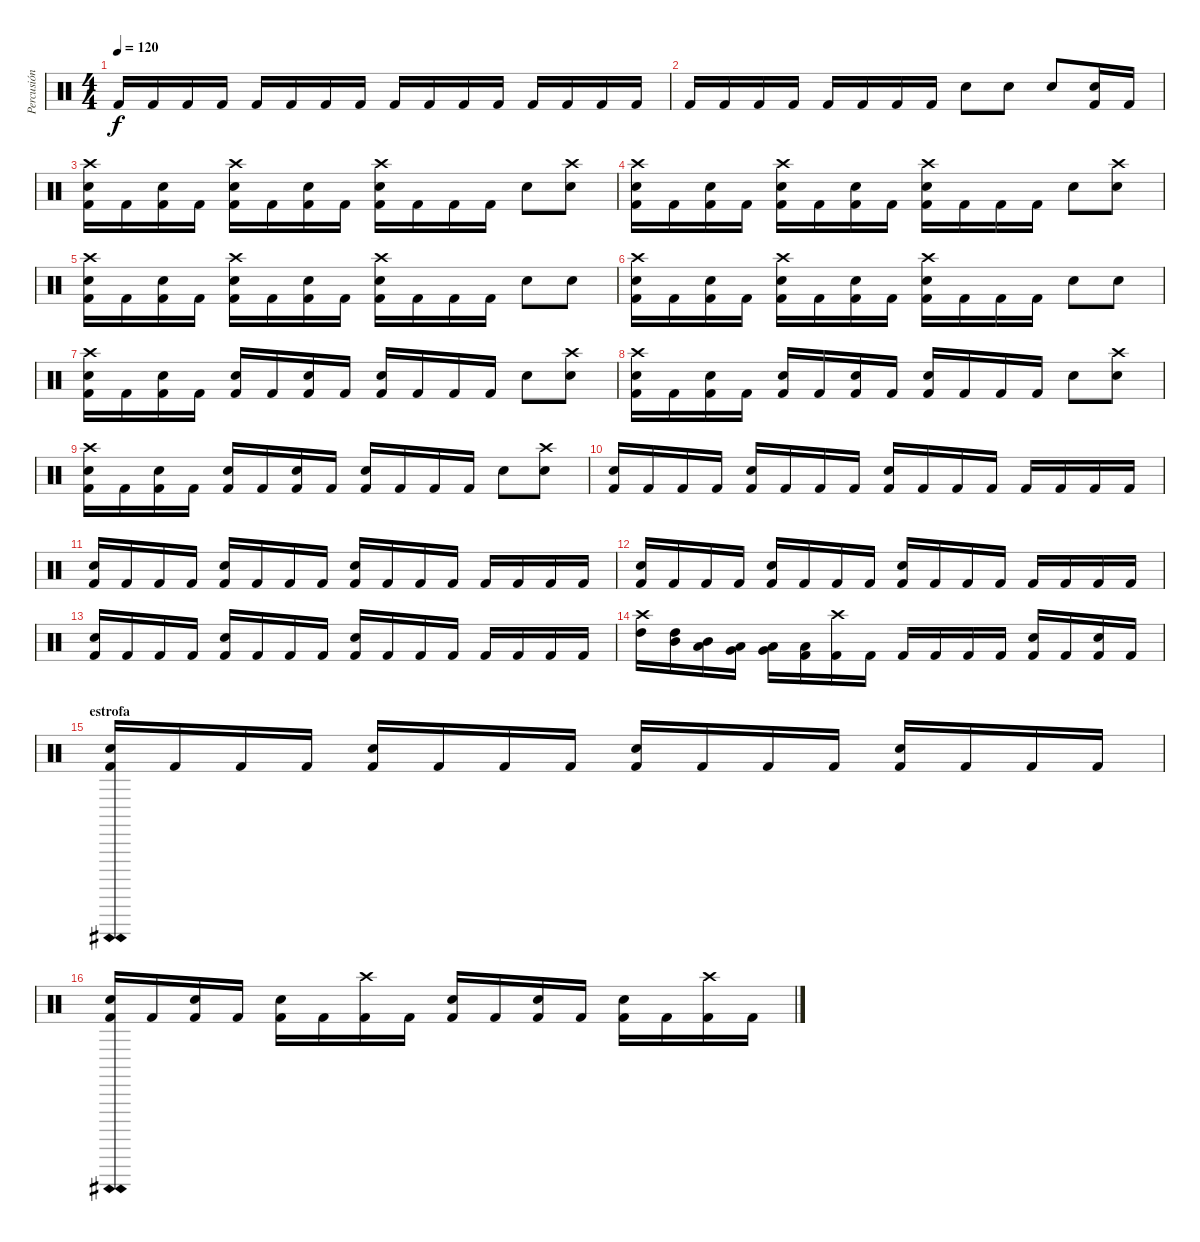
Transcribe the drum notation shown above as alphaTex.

\track ("Percusión" "Percusión") {instrument percussion}
\staff {score}
\articulation defaults
\ts (4 4)
\tempo 120
\clef neutral
\ks c "Kick (hit) 2".16{dy f} "Kick (hit) 2".16 "Kick (hit) 2".16 "Kick (hit) 2".16 "Kick (hit) 2".16 "Kick (hit) 2".16 "Kick (hit) 2".16 "Kick (hit) 2".16 "Kick (hit) 2".16 "Kick (hit) 2".16 "Kick (hit) 2".16 "Kick (hit) 2".16 "Kick (hit) 2".16 "Kick (hit) 2".16 "Kick (hit) 2".16 "Kick (hit) 2".16
|
"Kick (hit) 2".16 "Kick (hit) 2".16 "Kick (hit) 2".16 "Kick (hit) 2".16 "Kick (hit) 2".16 "Kick (hit) 2".16 "Kick (hit) 2".16 "Kick (hit) 2".16 "Electric Snare (hit)".8 "Electric Snare (hit)".8 "Electric Snare (hit)".8 ("Kick (hit) 2" "Electric Snare (hit)").16 "Kick (hit) 2".16 |
("Crash high (hit)" "Kick (hit) 2" "Electric Snare (hit)").16 "Kick (hit) 2".16 ("Kick (hit) 2" "Electric Snare (hit)").16 "Kick (hit) 2".16 ("Crash high (hit)" "Kick (hit) 2" "Electric Snare (hit)").16 "Kick (hit) 2".16 ("Kick (hit) 2" "Electric Snare (hit)").16 "Kick (hit) 2".16 ("Crash high (hit)" "Kick (hit) 2" "Electric Snare (hit)").16 "Kick (hit) 2".16 "Kick (hit) 2".16 "Kick (hit) 2".16 "Electric Snare (hit)".8 ("Crash high (hit)" "Electric Snare (hit)").8 |
("Crash high (hit)" "Kick (hit) 2" "Electric Snare (hit)").16 "Kick (hit) 2".16 ("Kick (hit) 2" "Electric Snare (hit)").16 "Kick (hit) 2".16 ("Crash high (hit)" "Kick (hit) 2" "Electric Snare (hit)").16 "Kick (hit) 2".16 ("Kick (hit) 2" "Electric Snare (hit)").16 "Kick (hit) 2".16 ("Crash high (hit)" "Kick (hit) 2" "Electric Snare (hit)").16 "Kick (hit) 2".16 "Kick (hit) 2".16 "Kick (hit) 2".16 "Electric Snare (hit)".8 ("Crash high (hit)" "Electric Snare (hit)").8 |
("Crash high (hit)" "Kick (hit) 2" "Electric Snare (hit)").16 "Kick (hit) 2".16 ("Kick (hit) 2" "Electric Snare (hit)").16 "Kick (hit) 2".16 ("Crash high (hit)" "Kick (hit) 2" "Electric Snare (hit)").16 "Kick (hit) 2".16 ("Kick (hit) 2" "Electric Snare (hit)").16 "Kick (hit) 2".16 ("Crash high (hit)" "Kick (hit) 2" "Electric Snare (hit)").16 "Kick (hit) 2".16 "Kick (hit) 2".16 "Kick (hit) 2".16 "Electric Snare (hit)".8 "Electric Snare (hit)".8 |
("Crash high (hit)" "Kick (hit) 2" "Electric Snare (hit)").16 "Kick (hit) 2".16 ("Kick (hit) 2" "Electric Snare (hit)").16 "Kick (hit) 2".16 ("Crash high (hit)" "Kick (hit) 2" "Electric Snare (hit)").16 "Kick (hit) 2".16 ("Kick (hit) 2" "Electric Snare (hit)").16 "Kick (hit) 2".16 ("Crash high (hit)" "Kick (hit) 2" "Electric Snare (hit)").16 "Kick (hit) 2".16 "Kick (hit) 2".16 "Kick (hit) 2".16 "Electric Snare (hit)".8 "Electric Snare (hit)".8 |
("Crash high (hit)" "Kick (hit) 2" "Electric Snare (hit)").16 "Kick (hit) 2".16 ("Kick (hit) 2" "Electric Snare (hit)").16 "Kick (hit) 2".16 ("Kick (hit) 2" "Electric Snare (hit)").16 "Kick (hit) 2".16 ("Kick (hit) 2" "Electric Snare (hit)").16 "Kick (hit) 2".16 ("Kick (hit) 2" "Electric Snare (hit)").16 "Kick (hit) 2".16 "Kick (hit) 2".16 "Kick (hit) 2".16 "Electric Snare (hit)".8 ("Crash high (hit)" "Electric Snare (hit)").8 |
("Crash high (hit)" "Kick (hit) 2" "Electric Snare (hit)").16 "Kick (hit) 2".16 ("Kick (hit) 2" "Electric Snare (hit)").16 "Kick (hit) 2".16 ("Kick (hit) 2" "Electric Snare (hit)").16 "Kick (hit) 2".16 ("Kick (hit) 2" "Electric Snare (hit)").16 "Kick (hit) 2".16 ("Kick (hit) 2" "Electric Snare (hit)").16 "Kick (hit) 2".16 "Kick (hit) 2".16 "Kick (hit) 2".16 "Electric Snare (hit)".8 ("Crash high (hit)" "Electric Snare (hit)").8 |
("Crash high (hit)" "Kick (hit) 2" "Electric Snare (hit)").16 "Kick (hit) 2".16 ("Kick (hit) 2" "Electric Snare (hit)").16 "Kick (hit) 2".16 ("Kick (hit) 2" "Electric Snare (hit)").16 "Kick (hit) 2".16 ("Kick (hit) 2" "Electric Snare (hit)").16 "Kick (hit) 2".16 ("Kick (hit) 2" "Electric Snare (hit)").16 "Kick (hit) 2".16 "Kick (hit) 2".16 "Kick (hit) 2".16 "Electric Snare (hit)".8 ("Crash high (hit)" "Electric Snare (hit)").8 |
("Kick (hit) 2" "Electric Snare (hit)").16 "Kick (hit) 2".16 "Kick (hit) 2".16 "Kick (hit) 2".16 ("Kick (hit) 2" "Electric Snare (hit)").16 "Kick (hit) 2".16 "Kick (hit) 2".16 "Kick (hit) 2".16 ("Kick (hit) 2" "Electric Snare (hit)").16 "Kick (hit) 2".16 "Kick (hit) 2".16 "Kick (hit) 2".16 "Kick (hit) 2".16 "Kick (hit) 2".16 "Kick (hit) 2".16 "Kick (hit) 2".16 |
("Kick (hit) 2" "Electric Snare (hit)").16 "Kick (hit) 2".16 "Kick (hit) 2".16 "Kick (hit) 2".16 ("Kick (hit) 2" "Electric Snare (hit)").16 "Kick (hit) 2".16 "Kick (hit) 2".16 "Kick (hit) 2".16 ("Kick (hit) 2" "Electric Snare (hit)").16 "Kick (hit) 2".16 "Kick (hit) 2".16 "Kick (hit) 2".16 "Kick (hit) 2".16 "Kick (hit) 2".16 "Kick (hit) 2".16 "Kick (hit) 2".16 |
("Kick (hit) 2" "Electric Snare (hit)").16 "Kick (hit) 2".16 "Kick (hit) 2".16 "Kick (hit) 2".16 ("Kick (hit) 2" "Electric Snare (hit)").16 "Kick (hit) 2".16 "Kick (hit) 2".16 "Kick (hit) 2".16 ("Kick (hit) 2" "Electric Snare (hit)").16 "Kick (hit) 2".16 "Kick (hit) 2".16 "Kick (hit) 2".16 "Kick (hit) 2".16 "Kick (hit) 2".16 "Kick (hit) 2".16 "Kick (hit) 2".16 |
("Kick (hit) 2" "Electric Snare (hit)").16 "Kick (hit) 2".16 "Kick (hit) 2".16 "Kick (hit) 2".16 ("Kick (hit) 2" "Electric Snare (hit)").16 "Kick (hit) 2".16 "Kick (hit) 2".16 "Kick (hit) 2".16 ("Kick (hit) 2" "Electric Snare (hit)").16 "Kick (hit) 2".16 "Kick (hit) 2".16 "Kick (hit) 2".16 "Kick (hit) 2".16 "Kick (hit) 2".16 "Kick (hit) 2".16 "Kick (hit) 2".16 |
("Crash high (hit)" "High Tom (hit)").16 ("Mid Tom (hit)" "High Tom (hit)").16 ("Low Tom (hit)" "Mid Tom (hit)").16 ("Very Low Tom (hit)" "Low Tom (hit)").16 ("Low Floor Tom (hit)" "Very Low Tom (hit)").16 ("Kick (hit) 2" "Low Floor Tom (hit)").16 ("Crash high (hit)" "Kick (hit) 2").16 "Kick (hit) 2".16 "Kick (hit) 2".16 "Kick (hit) 2".16 "Kick (hit) 2".16 "Kick (hit) 2".16 ("Kick (hit) 2" "Electric Snare (hit)").16 "Kick (hit) 2".16 ("Kick (hit) 2" "Electric Snare (hit)").16 "Kick (hit) 2".16 |
\section ("" "estrofa")
("Kick (hit) 2"{ah 12} "Electric Snare (hit)"{ah 12}).16 "Kick (hit) 2".16 "Kick (hit) 2".16 "Kick (hit) 2".16 ("Kick (hit) 2" "Electric Snare (hit)").16 "Kick (hit) 2".16 "Kick (hit) 2".16 "Kick (hit) 2".16 ("Kick (hit) 2" "Electric Snare (hit)").16 "Kick (hit) 2".16 "Kick (hit) 2".16 "Kick (hit) 2".16 ("Kick (hit) 2" "Electric Snare (hit)").16 "Kick (hit) 2".16 "Kick (hit) 2".16 "Kick (hit) 2".16 |
("Kick (hit) 2"{ah 12} "Electric Snare (hit)"{ah 12}).16 "Kick (hit) 2".16 ("Kick (hit) 2" "Electric Snare (hit)").16 "Kick (hit) 2".16 ("Kick (hit) 2" "Electric Snare (hit)").16 "Kick (hit) 2".16 ("Crash high (hit)" "Kick (hit) 2").16 "Kick (hit) 2".16 ("Kick (hit) 2" "Electric Snare (hit)").16 "Kick (hit) 2".16 ("Kick (hit) 2" "Electric Snare (hit)").16 "Kick (hit) 2".16 ("Kick (hit) 2" "Electric Snare (hit)").16 "Kick (hit) 2".16 ("Crash high (hit)" "Kick (hit) 2").16 "Kick (hit) 2".16
